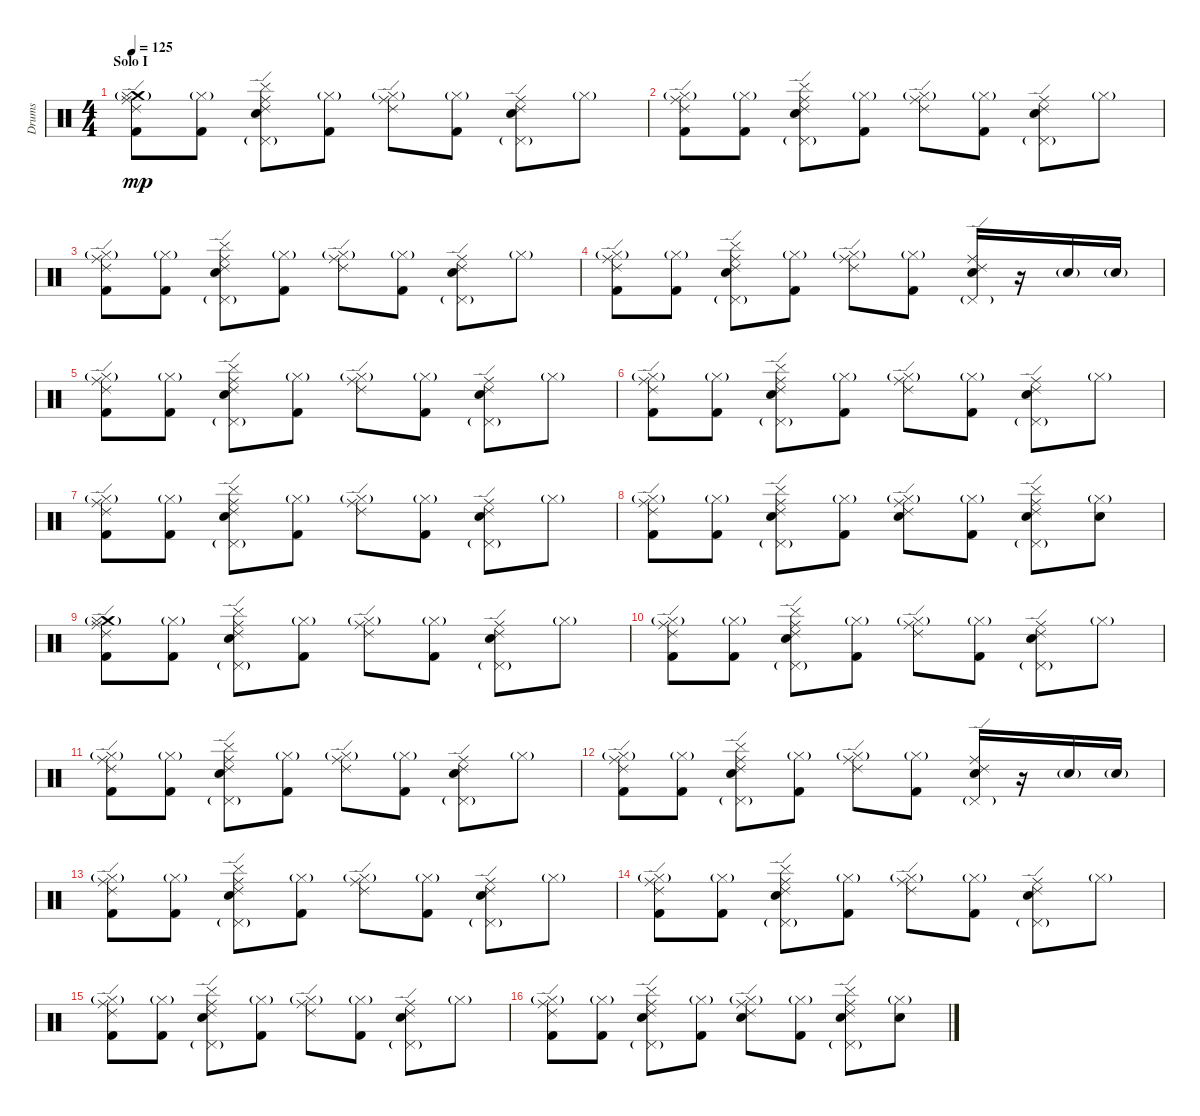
\track ("Drums" "Drums") {instrument percussion}
\staff {score}
\articulation defaults
\ts (4 4)
\section ("" "Solo I")
\tempo 125
\clef neutral
\ks c
("Crash medium (hit)" "Ride (middle)" "Hi-Hat (closed)"{g} "Ride (edge) 2" "Kick (hit) 2").8{dy mp} ("Hi-Hat (closed)"{g} "Kick (hit) 2").8 ("Ride (middle)" "Electric Snare (hit)" "Pedal Hi-Hat (hit)"{g} "Cymbal (hit)" "Ride (edge) 2").8 ("Hi-Hat (closed)"{g} "Kick (hit) 2").8 ("Ride (middle)" "Hi-Hat (closed)"{g} "Ride (edge) 2").8 ("Hi-Hat (closed)"{g} "Kick (hit) 2").8 ("Ride (middle)" "Electric Snare (hit)" "Pedal Hi-Hat (hit)"{g} "Ride (edge) 2").8 "Hi-Hat (closed)"{g}.8 |
("Ride (middle)" "Hi-Hat (closed)"{g} "Ride (edge) 2" "Kick (hit) 2").8 ("Hi-Hat (closed)"{g} "Kick (hit) 2").8 ("Ride (middle)" "Electric Snare (hit)" "Pedal Hi-Hat (hit)"{g} "Cymbal (hit)" "Ride (edge) 2").8 ("Hi-Hat (closed)"{g} "Kick (hit) 2").8 ("Ride (middle)" "Hi-Hat (closed)"{g} "Ride (edge) 2").8 ("Hi-Hat (closed)"{g} "Kick (hit) 2").8 ("Ride (middle)" "Electric Snare (hit)" "Pedal Hi-Hat (hit)"{g} "Ride (edge) 2").8 "Hi-Hat (closed)"{g}.8 |
("Ride (middle)" "Hi-Hat (closed)"{g} "Ride (edge) 2" "Kick (hit) 2").8 ("Hi-Hat (closed)"{g} "Kick (hit) 2").8 ("Ride (middle)" "Electric Snare (hit)" "Pedal Hi-Hat (hit)"{g} "Cymbal (hit)" "Ride (edge) 2").8 ("Hi-Hat (closed)"{g} "Kick (hit) 2").8 ("Ride (middle)" "Hi-Hat (closed)"{g} "Ride (edge) 2").8 ("Hi-Hat (closed)"{g} "Kick (hit) 2").8 ("Ride (middle)" "Electric Snare (hit)" "Pedal Hi-Hat (hit)"{g} "Ride (edge) 2").8 "Hi-Hat (closed)"{g}.8 |
("Ride (middle)" "Hi-Hat (closed)"{g} "Ride (edge) 2" "Kick (hit) 2").8 ("Hi-Hat (closed)"{g} "Kick (hit) 2").8 ("Ride (middle)" "Electric Snare (hit)" "Pedal Hi-Hat (hit)"{g} "Cymbal (hit)" "Ride (edge) 2").8 ("Hi-Hat (closed)"{g} "Kick (hit) 2").8 ("Ride (middle)" "Hi-Hat (closed)"{g} "Ride (edge) 2").8 ("Hi-Hat (closed)"{g} "Kick (hit) 2").8 ("Ride (middle)" "Electric Snare (hit)" "Pedal Hi-Hat (hit)"{g} "Ride (edge) 2").16 r.16 "Electric Snare (hit)"{g}.16 "Electric Snare (hit)"{g}.16 |
("Ride (middle)" "Hi-Hat (closed)"{g} "Ride (edge) 2" "Kick (hit) 2").8 ("Hi-Hat (closed)"{g} "Kick (hit) 2").8 ("Ride (middle)" "Electric Snare (hit)" "Pedal Hi-Hat (hit)"{g} "Cymbal (hit)" "Ride (edge) 2").8 ("Hi-Hat (closed)"{g} "Kick (hit) 2").8 ("Ride (middle)" "Hi-Hat (closed)"{g} "Ride (edge) 2").8 ("Hi-Hat (closed)"{g} "Kick (hit) 2").8 ("Ride (middle)" "Electric Snare (hit)" "Pedal Hi-Hat (hit)"{g} "Ride (edge) 2").8 "Hi-Hat (closed)"{g}.8 |
("Ride (middle)" "Hi-Hat (closed)"{g} "Ride (edge) 2" "Kick (hit) 2").8 ("Hi-Hat (closed)"{g} "Kick (hit) 2").8 ("Ride (middle)" "Electric Snare (hit)" "Pedal Hi-Hat (hit)"{g} "Cymbal (hit)" "Ride (edge) 2").8 ("Hi-Hat (closed)"{g} "Kick (hit) 2").8 ("Ride (middle)" "Hi-Hat (closed)"{g} "Ride (edge) 2").8 ("Hi-Hat (closed)"{g} "Kick (hit) 2").8 ("Ride (middle)" "Electric Snare (hit)" "Pedal Hi-Hat (hit)"{g} "Ride (edge) 2").8 "Hi-Hat (closed)"{g}.8 |
("Ride (middle)" "Hi-Hat (closed)"{g} "Ride (edge) 2" "Kick (hit) 2").8 ("Hi-Hat (closed)"{g} "Kick (hit) 2").8 ("Ride (middle)" "Electric Snare (hit)" "Pedal Hi-Hat (hit)"{g} "Cymbal (hit)" "Ride (edge) 2").8 ("Hi-Hat (closed)"{g} "Kick (hit) 2").8 ("Ride (middle)" "Hi-Hat (closed)"{g} "Ride (edge) 2").8 ("Hi-Hat (closed)"{g} "Kick (hit) 2").8 ("Ride (middle)" "Electric Snare (hit)" "Pedal Hi-Hat (hit)"{g} "Ride (edge) 2").8 "Hi-Hat (closed)"{g}.8 |
("Ride (middle)" "Hi-Hat (closed)"{g} "Ride (edge) 2" "Kick (hit) 2").8 ("Hi-Hat (closed)"{g} "Kick (hit) 2").8 ("Ride (middle)" "Electric Snare (hit)" "Pedal Hi-Hat (hit)"{g} "Cymbal (hit)" "Ride (edge) 2").8 ("Hi-Hat (closed)"{g} "Kick (hit) 2").8 ("Ride (middle)" "Electric Snare (hit)" "Hi-Hat (closed)"{g} "Ride (edge) 2").8 ("Hi-Hat (closed)"{g} "Kick (hit) 2").8 ("Ride (middle)" "Electric Snare (hit)" "Pedal Hi-Hat (hit)"{g} "Cymbal (hit)" "Ride (edge) 2").8 ("Electric Snare (hit)" "Hi-Hat (closed)"{g}).8 |
("Crash medium (hit)" "Ride (middle)" "Hi-Hat (closed)"{g} "Ride (edge) 2" "Kick (hit) 2").8 ("Hi-Hat (closed)"{g} "Kick (hit) 2").8 ("Ride (middle)" "Electric Snare (hit)" "Pedal Hi-Hat (hit)"{g} "Cymbal (hit)" "Ride (edge) 2").8 ("Hi-Hat (closed)"{g} "Kick (hit) 2").8 ("Ride (middle)" "Hi-Hat (closed)"{g} "Ride (edge) 2").8 ("Hi-Hat (closed)"{g} "Kick (hit) 2").8 ("Ride (middle)" "Electric Snare (hit)" "Pedal Hi-Hat (hit)"{g} "Ride (edge) 2").8 "Hi-Hat (closed)"{g}.8 |
("Ride (middle)" "Hi-Hat (closed)"{g} "Ride (edge) 2" "Kick (hit) 2").8 ("Hi-Hat (closed)"{g} "Kick (hit) 2").8 ("Ride (middle)" "Electric Snare (hit)" "Pedal Hi-Hat (hit)"{g} "Cymbal (hit)" "Ride (edge) 2").8 ("Hi-Hat (closed)"{g} "Kick (hit) 2").8 ("Ride (middle)" "Hi-Hat (closed)"{g} "Ride (edge) 2").8 ("Hi-Hat (closed)"{g} "Kick (hit) 2").8 ("Ride (middle)" "Electric Snare (hit)" "Pedal Hi-Hat (hit)"{g} "Ride (edge) 2").8 "Hi-Hat (closed)"{g}.8 |
("Ride (middle)" "Hi-Hat (closed)"{g} "Ride (edge) 2" "Kick (hit) 2").8 ("Hi-Hat (closed)"{g} "Kick (hit) 2").8 ("Ride (middle)" "Electric Snare (hit)" "Pedal Hi-Hat (hit)"{g} "Cymbal (hit)" "Ride (edge) 2").8 ("Hi-Hat (closed)"{g} "Kick (hit) 2").8 ("Ride (middle)" "Hi-Hat (closed)"{g} "Ride (edge) 2").8 ("Hi-Hat (closed)"{g} "Kick (hit) 2").8 ("Ride (middle)" "Electric Snare (hit)" "Pedal Hi-Hat (hit)"{g} "Ride (edge) 2").8 "Hi-Hat (closed)"{g}.8 |
("Ride (middle)" "Hi-Hat (closed)"{g} "Ride (edge) 2" "Kick (hit) 2").8 ("Hi-Hat (closed)"{g} "Kick (hit) 2").8 ("Ride (middle)" "Electric Snare (hit)" "Pedal Hi-Hat (hit)"{g} "Cymbal (hit)" "Ride (edge) 2").8 ("Hi-Hat (closed)"{g} "Kick (hit) 2").8 ("Ride (middle)" "Hi-Hat (closed)"{g} "Ride (edge) 2").8 ("Hi-Hat (closed)"{g} "Kick (hit) 2").8 ("Ride (middle)" "Electric Snare (hit)" "Pedal Hi-Hat (hit)"{g} "Ride (edge) 2").16 r.16 "Electric Snare (hit)"{g}.16 "Electric Snare (hit)"{g}.16 |
("Ride (middle)" "Hi-Hat (closed)"{g} "Ride (edge) 2" "Kick (hit) 2").8 ("Hi-Hat (closed)"{g} "Kick (hit) 2").8 ("Ride (middle)" "Electric Snare (hit)" "Pedal Hi-Hat (hit)"{g} "Cymbal (hit)" "Ride (edge) 2").8 ("Hi-Hat (closed)"{g} "Kick (hit) 2").8 ("Ride (middle)" "Hi-Hat (closed)"{g} "Ride (edge) 2").8 ("Hi-Hat (closed)"{g} "Kick (hit) 2").8 ("Ride (middle)" "Electric Snare (hit)" "Pedal Hi-Hat (hit)"{g} "Ride (edge) 2").8 "Hi-Hat (closed)"{g}.8 |
("Ride (middle)" "Hi-Hat (closed)"{g} "Ride (edge) 2" "Kick (hit) 2").8 ("Hi-Hat (closed)"{g} "Kick (hit) 2").8 ("Ride (middle)" "Electric Snare (hit)" "Pedal Hi-Hat (hit)"{g} "Cymbal (hit)" "Ride (edge) 2").8 ("Hi-Hat (closed)"{g} "Kick (hit) 2").8 ("Ride (middle)" "Hi-Hat (closed)"{g} "Ride (edge) 2").8 ("Hi-Hat (closed)"{g} "Kick (hit) 2").8 ("Ride (middle)" "Electric Snare (hit)" "Pedal Hi-Hat (hit)"{g} "Ride (edge) 2").8 "Hi-Hat (closed)"{g}.8 |
("Ride (middle)" "Hi-Hat (closed)"{g} "Ride (edge) 2" "Kick (hit) 2").8 ("Hi-Hat (closed)"{g} "Kick (hit) 2").8 ("Ride (middle)" "Electric Snare (hit)" "Pedal Hi-Hat (hit)"{g} "Cymbal (hit)" "Ride (edge) 2").8 ("Hi-Hat (closed)"{g} "Kick (hit) 2").8 ("Ride (middle)" "Hi-Hat (closed)"{g} "Ride (edge) 2").8 ("Hi-Hat (closed)"{g} "Kick (hit) 2").8 ("Ride (middle)" "Electric Snare (hit)" "Pedal Hi-Hat (hit)"{g} "Ride (edge) 2").8 "Hi-Hat (closed)"{g}.8 |
("Ride (middle)" "Hi-Hat (closed)"{g} "Ride (edge) 2" "Kick (hit) 2").8 ("Hi-Hat (closed)"{g} "Kick (hit) 2").8 ("Ride (middle)" "Electric Snare (hit)" "Pedal Hi-Hat (hit)"{g} "Cymbal (hit)" "Ride (edge) 2").8 ("Hi-Hat (closed)"{g} "Kick (hit) 2").8 ("Ride (middle)" "Electric Snare (hit)" "Hi-Hat (closed)"{g} "Ride (edge) 2").8 ("Hi-Hat (closed)"{g} "Kick (hit) 2").8 ("Ride (middle)" "Electric Snare (hit)" "Pedal Hi-Hat (hit)"{g} "Cymbal (hit)" "Ride (edge) 2").8 ("Electric Snare (hit)" "Hi-Hat (closed)"{g}).8
